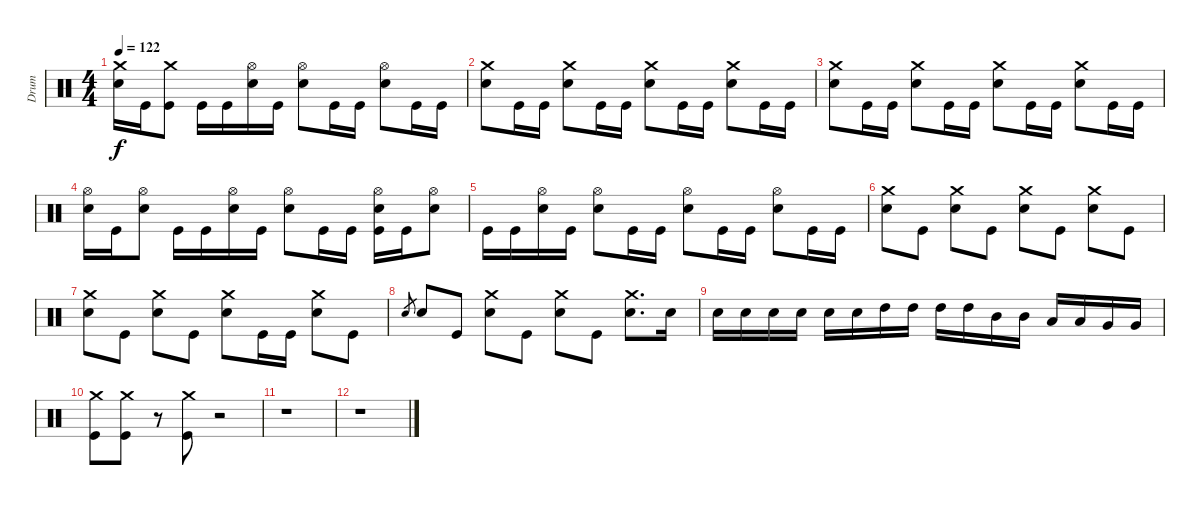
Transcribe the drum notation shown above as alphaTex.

\track ("Drum" "Drum") {instrument percussion}
\staff {score}
\articulation defaults
\ts (4 4)
\tempo 122
\clef neutral
\ks c
("Electric Snare (hit)" "Crash medium (hit)").16{dy f} "Kick (hit)".16 ("Kick (hit)" "Crash medium (hit)").8 "Kick (hit)".16 "Kick (hit)".16 ("Electric Snare (hit)" "Hi-Hat (open)").16 "Kick (hit)".16 ("Electric Snare (hit)" "Hi-Hat (open)").8 "Kick (hit)".16 "Kick (hit)".16 ("Electric Snare (hit)" "Hi-Hat (open)").8 "Kick (hit)".16 "Kick (hit)".16 |
("Electric Snare (hit)" "Crash medium (hit)").8 "Kick (hit)".16 "Kick (hit)".16 ("Electric Snare (hit)" "Crash medium (hit)").8 "Kick (hit)".16 "Kick (hit)".16 ("Electric Snare (hit)" "Crash medium (hit)").8 "Kick (hit)".16 "Kick (hit)".16 ("Electric Snare (hit)" "Crash medium (hit)").8 "Kick (hit)".16 "Kick (hit)".16 |
("Electric Snare (hit)" "Crash medium (hit)").8 "Kick (hit)".16 "Kick (hit)".16 ("Electric Snare (hit)" "Crash medium (hit)").8 "Kick (hit)".16 "Kick (hit)".16 ("Electric Snare (hit)" "Crash medium (hit)").8 "Kick (hit)".16 "Kick (hit)".16 ("Electric Snare (hit)" "Crash medium (hit)").8 "Kick (hit)".16 "Kick (hit)".16 |
("Electric Snare (hit)" "Hi-Hat (open)").16 "Kick (hit)".16 ("Electric Snare (hit)" "Hi-Hat (open)").8 "Kick (hit)".16 "Kick (hit)".16 ("Electric Snare (hit)" "Hi-Hat (open)").16 "Kick (hit)".16 ("Electric Snare (hit)" "Hi-Hat (open)").8 "Kick (hit)".16 "Kick (hit)".16 ("Kick (hit)" "Electric Snare (hit)" "Hi-Hat (open)").16 "Kick (hit)".16 ("Electric Snare (hit)" "Hi-Hat (open)").8 |
"Kick (hit)".16 "Kick (hit)".16 ("Electric Snare (hit)" "Hi-Hat (open)").16 "Kick (hit)".16 ("Electric Snare (hit)" "Hi-Hat (open)").8 "Kick (hit)".16 "Kick (hit)".16 ("Electric Snare (hit)" "Hi-Hat (open)").8 "Kick (hit)".16 "Kick (hit)".16 ("Electric Snare (hit)" "Hi-Hat (open)").8 "Kick (hit)".16 "Kick (hit)".16 |
("Electric Snare (hit)" "Crash medium (hit)").8 "Kick (hit)".8 ("Electric Snare (hit)" "Crash medium (hit)").8 "Kick (hit)".8 ("Electric Snare (hit)" "Crash medium (hit)").8 "Kick (hit)".8 ("Electric Snare (hit)" "Crash medium (hit)").8 "Kick (hit)".8 |
("Electric Snare (hit)" "Crash medium (hit)").8 "Kick (hit)".8 ("Electric Snare (hit)" "Crash medium (hit)").8 "Kick (hit)".8 ("Electric Snare (hit)" "Crash medium (hit)").8 "Kick (hit)".16 "Kick (hit)".16 ("Electric Snare (hit)" "Crash medium (hit)").8 "Kick (hit)".8 |
"Electric Snare (hit)".8{gr} "Electric Snare (hit)".8 "Kick (hit)".8 ("Electric Snare (hit)" "Crash medium (hit)").8 "Kick (hit)".8 ("Electric Snare (hit)" "Crash medium (hit)").8 "Kick (hit)".8 ("Electric Snare (hit)" "Crash medium (hit)").8{d} "Electric Snare (hit)".16 |
"Electric Snare (hit)".16 "Electric Snare (hit)".16 "Electric Snare (hit)".16 "Electric Snare (hit)".16 "Electric Snare (hit)".16 "Electric Snare (hit)".16 "High Tom (hit)".16 "High Tom (hit)".16 "High Tom (hit)".16 "High Tom (hit)".16 "Mid Tom (hit)".16 "Mid Tom (hit)".16 "Low Tom (hit)".16 "Low Tom (hit)".16 "Very Low Tom (hit)".16 "Very Low Tom (hit)".16 |
("Kick (hit)" "Crash medium (hit)").8 ("Kick (hit)" "Crash medium (hit)").8 r.8 ("Kick (hit)" "Crash medium (hit)").8 r.2 |
r.1 |
r.1
